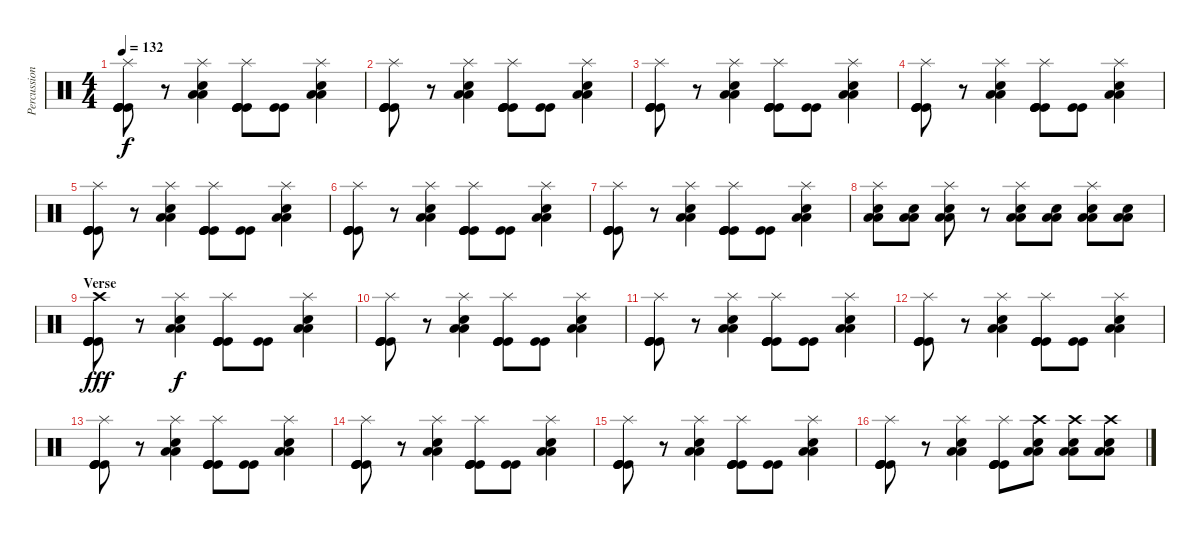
\track ("Percussion" "Percussion") {instrument percussion}
\staff {score}
\articulation defaults
\ts (4 4)
\tempo 132
\clef neutral
\ks c
("Splash (hit)" "Kick (hit)" "Kick (hit)" "Kick (hit)" "Kick (hit)").8{dy f} r.8 ("Splash (hit)" "Low Tom (hit)" "Low Tom (hit)" "Electric Snare (hit)").4 ("Splash (hit)" "Kick (hit)" "Kick (hit)" "Kick (hit)" "Kick (hit)").8 ("Kick (hit)" "Kick (hit)").8 ("Splash (hit)" "Low Tom (hit)" "Low Tom (hit)" "Electric Snare (hit)").4 |
("Splash (hit)" "Kick (hit)" "Kick (hit)" "Kick (hit)" "Kick (hit)").8 r.8 ("Splash (hit)" "Low Tom (hit)" "Low Tom (hit)" "Electric Snare (hit)").4 ("Splash (hit)" "Kick (hit)" "Kick (hit)" "Kick (hit)" "Kick (hit)").8 ("Kick (hit)" "Kick (hit)").8 ("Splash (hit)" "Low Tom (hit)" "Low Tom (hit)" "Electric Snare (hit)").4 |
("Splash (hit)" "Kick (hit)" "Kick (hit)" "Kick (hit)" "Kick (hit)").8 r.8 ("Splash (hit)" "Low Tom (hit)" "Low Tom (hit)" "Electric Snare (hit)").4 ("Splash (hit)" "Kick (hit)" "Kick (hit)" "Kick (hit)" "Kick (hit)").8 ("Kick (hit)" "Kick (hit)").8 ("Splash (hit)" "Low Tom (hit)" "Low Tom (hit)" "Electric Snare (hit)").4 |
("Splash (hit)" "Kick (hit)" "Kick (hit)" "Kick (hit)" "Kick (hit)").8 r.8 ("Splash (hit)" "Low Tom (hit)" "Low Tom (hit)" "Electric Snare (hit)").4 ("Splash (hit)" "Kick (hit)" "Kick (hit)" "Kick (hit)" "Kick (hit)").8 ("Kick (hit)" "Kick (hit)").8 ("Splash (hit)" "Low Tom (hit)" "Low Tom (hit)" "Electric Snare (hit)").4 |
("Splash (hit)" "Kick (hit)" "Kick (hit)" "Kick (hit)" "Kick (hit)").8 r.8 ("Splash (hit)" "Low Tom (hit)" "Low Tom (hit)" "Electric Snare (hit)").4 ("Splash (hit)" "Kick (hit)" "Kick (hit)" "Kick (hit)" "Kick (hit)").8 ("Kick (hit)" "Kick (hit)").8 ("Splash (hit)" "Low Tom (hit)" "Low Tom (hit)" "Electric Snare (hit)").4 |
("Splash (hit)" "Kick (hit)" "Kick (hit)" "Kick (hit)" "Kick (hit)").8 r.8 ("Splash (hit)" "Low Tom (hit)" "Low Tom (hit)" "Electric Snare (hit)").4 ("Splash (hit)" "Kick (hit)" "Kick (hit)" "Kick (hit)" "Kick (hit)").8 ("Kick (hit)" "Kick (hit)").8 ("Splash (hit)" "Low Tom (hit)" "Low Tom (hit)" "Electric Snare (hit)").4 |
("Splash (hit)" "Kick (hit)" "Kick (hit)" "Kick (hit)" "Kick (hit)").8 r.8 ("Splash (hit)" "Low Tom (hit)" "Low Tom (hit)" "Electric Snare (hit)").4 ("Splash (hit)" "Kick (hit)" "Kick (hit)" "Kick (hit)" "Kick (hit)").8 ("Kick (hit)" "Kick (hit)").8 ("Splash (hit)" "Low Tom (hit)" "Low Tom (hit)" "Electric Snare (hit)").4 |
("Splash (hit)" "Low Tom (hit)" "Low Tom (hit)" "Electric Snare (hit)").8 ("Low Tom (hit)" "Low Tom (hit)" "Electric Snare (hit)").8 ("Splash (hit)" "Low Tom (hit)" "Low Tom (hit)" "Electric Snare (hit)").8 r.8 ("Splash (hit)" "Low Tom (hit)" "Low Tom (hit)" "Electric Snare (hit)").8 ("Low Tom (hit)" "Low Tom (hit)" "Electric Snare (hit)").8 ("Splash (hit)" "Low Tom (hit)" "Low Tom (hit)" "Electric Snare (hit)").8 ("Low Tom (hit)" "Low Tom (hit)" "Electric Snare (hit)").8 |
\section ("" "Verse")
("Crash high (hit)" "Kick (hit)" "Kick (hit)" "Kick (hit)" "Kick (hit)").8{dy fff} r.8 ("Splash (hit)" "Low Tom (hit)" "Low Tom (hit)" "Electric Snare (hit)").4{dy f} ("Splash (hit)" "Kick (hit)" "Kick (hit)" "Kick (hit)" "Kick (hit)").8 ("Kick (hit)" "Kick (hit)").8 ("Splash (hit)" "Low Tom (hit)" "Low Tom (hit)" "Electric Snare (hit)").4 |
("Splash (hit)" "Kick (hit)" "Kick (hit)" "Kick (hit)" "Kick (hit)").8 r.8 ("Splash (hit)" "Low Tom (hit)" "Low Tom (hit)" "Electric Snare (hit)").4 ("Splash (hit)" "Kick (hit)" "Kick (hit)" "Kick (hit)" "Kick (hit)").8 ("Kick (hit)" "Kick (hit)").8 ("Splash (hit)" "Low Tom (hit)" "Low Tom (hit)" "Electric Snare (hit)").4 |
("Splash (hit)" "Kick (hit)" "Kick (hit)" "Kick (hit)" "Kick (hit)").8 r.8 ("Splash (hit)" "Low Tom (hit)" "Low Tom (hit)" "Electric Snare (hit)").4 ("Splash (hit)" "Kick (hit)" "Kick (hit)" "Kick (hit)" "Kick (hit)").8 ("Kick (hit)" "Kick (hit)").8 ("Splash (hit)" "Low Tom (hit)" "Low Tom (hit)" "Electric Snare (hit)").4 |
("Splash (hit)" "Kick (hit)" "Kick (hit)" "Kick (hit)" "Kick (hit)").8 r.8 ("Splash (hit)" "Low Tom (hit)" "Low Tom (hit)" "Electric Snare (hit)").4 ("Splash (hit)" "Kick (hit)" "Kick (hit)" "Kick (hit)" "Kick (hit)").8 ("Kick (hit)" "Kick (hit)").8 ("Splash (hit)" "Low Tom (hit)" "Low Tom (hit)" "Electric Snare (hit)").4 |
("Splash (hit)" "Kick (hit)" "Kick (hit)" "Kick (hit)" "Kick (hit)").8 r.8 ("Splash (hit)" "Low Tom (hit)" "Low Tom (hit)" "Electric Snare (hit)").4 ("Splash (hit)" "Kick (hit)" "Kick (hit)" "Kick (hit)" "Kick (hit)").8 ("Kick (hit)" "Kick (hit)").8 ("Splash (hit)" "Low Tom (hit)" "Low Tom (hit)" "Electric Snare (hit)").4 |
("Splash (hit)" "Kick (hit)" "Kick (hit)" "Kick (hit)" "Kick (hit)").8 r.8 ("Splash (hit)" "Low Tom (hit)" "Low Tom (hit)" "Electric Snare (hit)").4 ("Splash (hit)" "Kick (hit)" "Kick (hit)" "Kick (hit)" "Kick (hit)").8 ("Kick (hit)" "Kick (hit)").8 ("Splash (hit)" "Low Tom (hit)" "Low Tom (hit)" "Electric Snare (hit)").4 |
("Splash (hit)" "Kick (hit)" "Kick (hit)" "Kick (hit)" "Kick (hit)").8 r.8 ("Splash (hit)" "Low Tom (hit)" "Low Tom (hit)" "Electric Snare (hit)").4 ("Splash (hit)" "Kick (hit)" "Kick (hit)" "Kick (hit)" "Kick (hit)").8 ("Kick (hit)" "Kick (hit)").8 ("Splash (hit)" "Low Tom (hit)" "Low Tom (hit)" "Electric Snare (hit)").4 |
("Splash (hit)" "Kick (hit)" "Kick (hit)" "Kick (hit)" "Kick (hit)").8 r.8 ("Splash (hit)" "Low Tom (hit)" "Low Tom (hit)" "Electric Snare (hit)").4 ("Splash (hit)" "Kick (hit)" "Kick (hit)" "Kick (hit)" "Kick (hit)").8 ("Crash high (hit)" "Low Tom (hit)" "Low Tom (hit)" "Electric Snare (hit)").8 ("Crash high (hit)" "Low Tom (hit)" "Low Tom (hit)" "Electric Snare (hit)").8 ("Crash high (hit)" "Low Tom (hit)" "Low Tom (hit)" "Electric Snare (hit)").8
